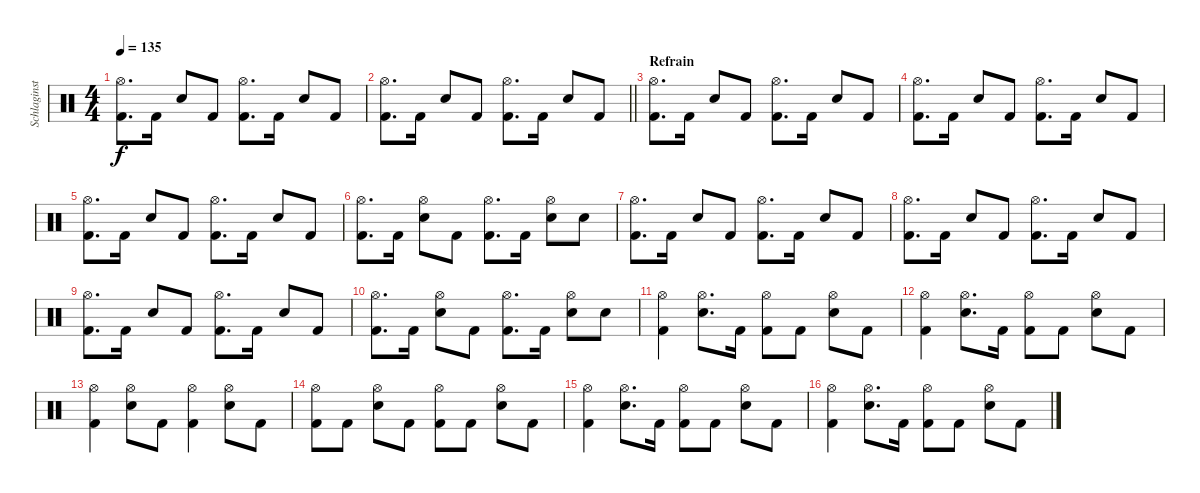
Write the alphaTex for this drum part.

\track ("Schlaginstrumente - Auswahl" "Schlaginst") {instrument percussion}
\staff {score}
\articulation defaults
\ts (4 4)
\tempo 135
\clef neutral
\ks c
("Hi-Hat (open)" "Kick (hit) 2").8{d dy f} "Kick (hit) 2".16 "Electric Snare (hit)".8 "Kick (hit) 2".8 ("Hi-Hat (open)" "Kick (hit) 2").8{d} "Kick (hit) 2".16 "Electric Snare (hit)".8 "Kick (hit) 2".8 |
\barLineRight lightlight
("Hi-Hat (open)" "Kick (hit) 2").8{d} "Kick (hit) 2".16 "Electric Snare (hit)".8 "Kick (hit) 2".8 ("Hi-Hat (open)" "Kick (hit) 2").8{d} "Kick (hit) 2".16 "Electric Snare (hit)".8 "Kick (hit) 2".8 |
\section ("" "Refrain")
("Hi-Hat (open)" "Kick (hit) 2").8{d} "Kick (hit) 2".16 "Electric Snare (hit)".8 "Kick (hit) 2".8 ("Hi-Hat (open)" "Kick (hit) 2").8{d} "Kick (hit) 2".16 "Electric Snare (hit)".8 "Kick (hit) 2".8 |
("Hi-Hat (open)" "Kick (hit) 2").8{d} "Kick (hit) 2".16 "Electric Snare (hit)".8 "Kick (hit) 2".8 ("Hi-Hat (open)" "Kick (hit) 2").8{d} "Kick (hit) 2".16 "Electric Snare (hit)".8 "Kick (hit) 2".8 |
("Hi-Hat (open)" "Kick (hit) 2").8{d} "Kick (hit) 2".16 "Electric Snare (hit)".8 "Kick (hit) 2".8 ("Hi-Hat (open)" "Kick (hit) 2").8{d} "Kick (hit) 2".16 "Electric Snare (hit)".8 "Kick (hit) 2".8 |
("Hi-Hat (open)" "Kick (hit) 2").8{d} "Kick (hit) 2".16 ("Hi-Hat (open)" "Electric Snare (hit)").8 "Kick (hit) 2".8 ("Hi-Hat (open)" "Kick (hit) 2").8{d} "Kick (hit) 2".16 ("Hi-Hat (open)" "Electric Snare (hit)").8 "Electric Snare (hit)".8 |
("Hi-Hat (open)" "Kick (hit) 2").8{d} "Kick (hit) 2".16 "Electric Snare (hit)".8 "Kick (hit) 2".8 ("Hi-Hat (open)" "Kick (hit) 2").8{d} "Kick (hit) 2".16 "Electric Snare (hit)".8 "Kick (hit) 2".8 |
("Hi-Hat (open)" "Kick (hit) 2").8{d} "Kick (hit) 2".16 "Electric Snare (hit)".8 "Kick (hit) 2".8 ("Hi-Hat (open)" "Kick (hit) 2").8{d} "Kick (hit) 2".16 "Electric Snare (hit)".8 "Kick (hit) 2".8 |
("Hi-Hat (open)" "Kick (hit) 2").8{d} "Kick (hit) 2".16 "Electric Snare (hit)".8 "Kick (hit) 2".8 ("Hi-Hat (open)" "Kick (hit) 2").8{d} "Kick (hit) 2".16 "Electric Snare (hit)".8 "Kick (hit) 2".8 |
("Hi-Hat (open)" "Kick (hit) 2").8{d} "Kick (hit) 2".16 ("Hi-Hat (open)" "Electric Snare (hit)").8 "Kick (hit) 2".8 ("Hi-Hat (open)" "Kick (hit) 2").8{d} "Kick (hit) 2".16 ("Hi-Hat (open)" "Electric Snare (hit)").8 "Electric Snare (hit)".8 |
("Hi-Hat (open)" "Kick (hit) 2").4 ("Hi-Hat (open)" "Electric Snare (hit)").8{d} "Kick (hit) 2".16 ("Hi-Hat (open)" "Kick (hit) 2").8 "Kick (hit) 2".8 ("Hi-Hat (open)" "Electric Snare (hit)").8 "Kick (hit) 2".8 |
("Hi-Hat (open)" "Kick (hit) 2").4 ("Hi-Hat (open)" "Electric Snare (hit)").8{d} "Kick (hit) 2".16 ("Hi-Hat (open)" "Kick (hit) 2").8 "Kick (hit) 2".8 ("Hi-Hat (open)" "Electric Snare (hit)").8 "Kick (hit) 2".8 |
("Hi-Hat (open)" "Kick (hit) 2").4 ("Hi-Hat (open)" "Electric Snare (hit)").8 "Kick (hit) 2".8 ("Hi-Hat (open)" "Kick (hit) 2").4 ("Hi-Hat (open)" "Electric Snare (hit)").8 "Kick (hit) 2".8 |
("Hi-Hat (open)" "Kick (hit) 2").8 "Kick (hit) 2".8 ("Hi-Hat (open)" "Electric Snare (hit)").8 "Kick (hit) 2".8 ("Hi-Hat (open)" "Kick (hit) 2").8 "Kick (hit) 2".8 ("Hi-Hat (open)" "Electric Snare (hit)").8 "Kick (hit) 2".8 |
("Hi-Hat (open)" "Kick (hit) 2").4 ("Hi-Hat (open)" "Electric Snare (hit)").8{d} "Kick (hit) 2".16 ("Hi-Hat (open)" "Kick (hit) 2").8 "Kick (hit) 2".8 ("Hi-Hat (open)" "Electric Snare (hit)").8 "Kick (hit) 2".8 |
("Hi-Hat (open)" "Kick (hit) 2").4 ("Hi-Hat (open)" "Electric Snare (hit)").8{d} "Kick (hit) 2".16 ("Hi-Hat (open)" "Kick (hit) 2").8 "Kick (hit) 2".8 ("Hi-Hat (open)" "Electric Snare (hit)").8 "Kick (hit) 2".8
